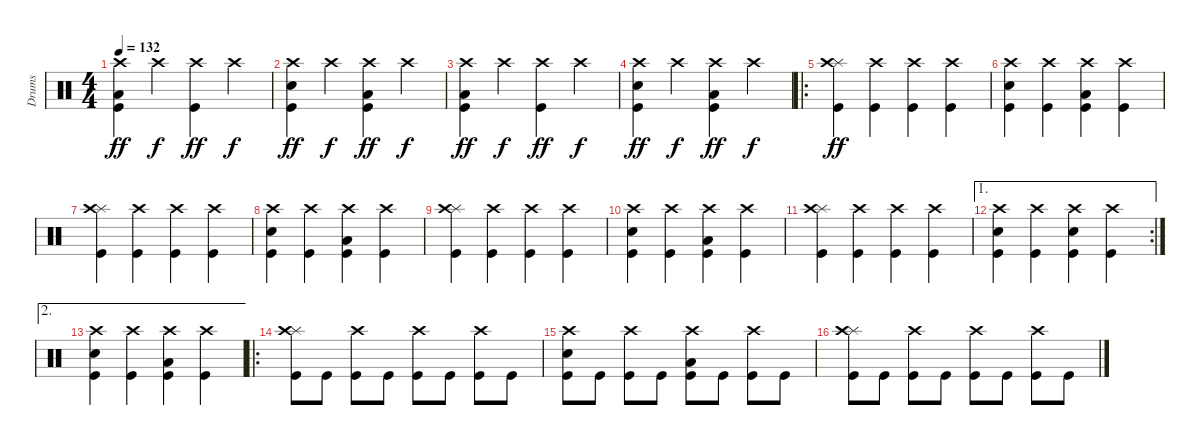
\track ("Drums" "Drums") {instrument percussion}
\staff {score}
\articulation defaults
\ts (4 4)
\tempo 132
\clef neutral
\ks c
("Crash high (hit)" "Low Floor Tom (hit)" "Kick (hit)").4{dy ff} "Crash high (hit)".4{dy f} ("Crash high (hit)" "Kick (hit)").4{dy ff} "Crash high (hit)".4{dy f} |
("Crash high (hit)" "Electric Snare (hit)" "Kick (hit)").4{dy ff} "Crash high (hit)".4{dy f} ("Crash high (hit)" "Low Floor Tom (hit)" "Kick (hit)").4{dy ff} "Crash high (hit)".4{dy f} |
("Crash high (hit)" "Low Floor Tom (hit)" "Kick (hit)").4{dy ff} "Crash high (hit)".4{dy f} ("Crash high (hit)" "Kick (hit)").4{dy ff} "Crash high (hit)".4{dy f} |
("Crash high (hit)" "Electric Snare (hit)" "Kick (hit)").4{dy ff} "Crash high (hit)".4{dy f} ("Crash high (hit)" "Low Floor Tom (hit)" "Kick (hit)").4{dy ff} "Crash high (hit)".4{dy f} |
\ro
("Splash (hit)" "Crash high (hit)" "Kick (hit)").4{dy ff} ("Crash high (hit)" "Kick (hit)").4 ("Crash high (hit)" "Kick (hit)").4 ("Crash high (hit)" "Kick (hit)").4 |
("Crash high (hit)" "Electric Snare (hit)" "Kick (hit)").4 ("Crash high (hit)" "Kick (hit)").4 ("Crash high (hit)" "Low Floor Tom (hit)" "Kick (hit)").4 ("Crash high (hit)" "Kick (hit)").4 |
("Splash (hit)" "Crash high (hit)" "Kick (hit)").4 ("Crash high (hit)" "Kick (hit)").4 ("Crash high (hit)" "Kick (hit)").4 ("Crash high (hit)" "Kick (hit)").4 |
("Crash high (hit)" "Electric Snare (hit)" "Kick (hit)").4 ("Crash high (hit)" "Kick (hit)").4 ("Crash high (hit)" "Low Floor Tom (hit)" "Kick (hit)").4 ("Crash high (hit)" "Kick (hit)").4 |
("Splash (hit)" "Crash high (hit)" "Kick (hit)").4 ("Crash high (hit)" "Kick (hit)").4 ("Crash high (hit)" "Kick (hit)").4 ("Crash high (hit)" "Kick (hit)").4 |
("Crash high (hit)" "Electric Snare (hit)" "Kick (hit)").4 ("Crash high (hit)" "Kick (hit)").4 ("Crash high (hit)" "Low Floor Tom (hit)" "Kick (hit)").4 ("Crash high (hit)" "Kick (hit)").4 |
("Splash (hit)" "Crash high (hit)" "Kick (hit)").4 ("Crash high (hit)" "Kick (hit)").4 ("Crash high (hit)" "Kick (hit)").4 ("Crash high (hit)" "Kick (hit)").4 |
\ae 1
\rc 2
("Crash high (hit)" "Electric Snare (hit)" "Kick (hit)").4 ("Crash high (hit)" "Kick (hit)").4 ("Crash high (hit)" "Electric Snare (hit)" "Kick (hit)").4 ("Crash high (hit)" "Kick (hit)").4 |
\ae 2
("Crash high (hit)" "Electric Snare (hit)" "Kick (hit)").4 ("Crash high (hit)" "Kick (hit)").4 ("Crash high (hit)" "Low Floor Tom (hit)" "Kick (hit)").4 ("Crash high (hit)" "Kick (hit)").4 |
\ro
("Splash (hit)" "Crash high (hit)" "Kick (hit)").8 "Kick (hit)".8 ("Crash high (hit)" "Kick (hit)").8 "Kick (hit)".8 ("Crash high (hit)" "Kick (hit)").8 "Kick (hit)".8 ("Crash high (hit)" "Kick (hit)").8 "Kick (hit)".8 |
("Crash high (hit)" "Electric Snare (hit)" "Kick (hit)").8 "Kick (hit)".8 ("Crash high (hit)" "Kick (hit)").8 "Kick (hit)".8 ("Crash high (hit)" "Low Floor Tom (hit)" "Kick (hit)").8 "Kick (hit)".8 ("Crash high (hit)" "Kick (hit)").8 "Kick (hit)".8 |
("Splash (hit)" "Crash high (hit)" "Kick (hit)").8 "Kick (hit)".8 ("Crash high (hit)" "Kick (hit)").8 "Kick (hit)".8 ("Crash high (hit)" "Kick (hit)").8 "Kick (hit)".8 ("Crash high (hit)" "Kick (hit)").8 "Kick (hit)".8
